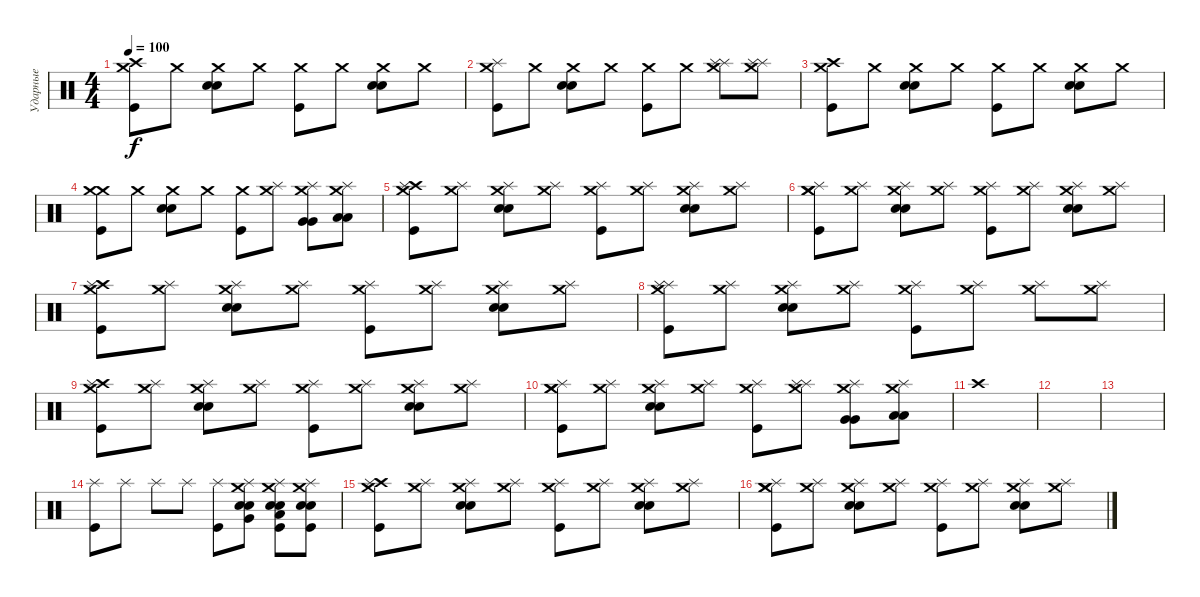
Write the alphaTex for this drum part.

\track ("Ударные" "Ударные") {instrument percussion}
\staff {score}
\articulation defaults
\ts (4 4)
\tempo 100
\clef neutral
\ks c
("Crash medium (hit)" "Crash high (hit)" "Kick (hit)").8{dy f} "Crash medium (hit)".8 ("Crash medium (hit)" "Snare (hit) 2" "Snare (hit) 2").8 "Crash medium (hit)".8 ("Crash medium (hit)" "Kick (hit)").8 "Crash medium (hit)".8 ("Crash medium (hit)" "Snare (hit) 2" "Snare (hit) 2").8 "Crash medium (hit)".8 |
("Crash medium (hit)" "Splash (hit)" "Kick (hit)").8 "Crash medium (hit)".8 ("Crash medium (hit)" "Snare (hit) 2" "Snare (hit) 2").8 "Crash medium (hit)".8 ("Crash medium (hit)" "Kick (hit)").8 "Crash medium (hit)".8 ("Crash medium (hit)" "Splash (hit)" "Splash (hit)").8 ("Crash medium (hit)" "Splash (hit)" "Splash (hit)").8 |
("Crash medium (hit)" "Crash high (hit)" "Kick (hit)").8 "Crash medium (hit)".8 ("Crash medium (hit)" "Snare (hit) 2" "Snare (hit) 2").8 "Crash medium (hit)".8 ("Crash medium (hit)" "Kick (hit)").8 "Crash medium (hit)".8 ("Crash medium (hit)" "Snare (hit) 2" "Snare (hit) 2").8 "Crash medium (hit)".8 |
("Crash medium (hit)" "Crash medium (hit)" "Kick (hit)").8 "Crash medium (hit)".8 ("Crash medium (hit)" "Snare (hit) 2" "Snare (hit) 2").8 "Crash medium (hit)".8 ("Crash medium (hit)" "Kick (hit)").8 ("Crash medium (hit)" "Splash (hit)").8 ("Crash medium (hit)" "Splash (hit)" "Very Low Tom (hit)" "Very Low Tom (hit)").8 ("Crash medium (hit)" "Splash (hit)" "Low Floor Tom (hit)" "Low Floor Tom (hit)").8 |
("Crash medium (hit)" "Crash high (hit)" "Splash (hit)" "Kick (hit)").8 ("Crash medium (hit)" "Splash (hit)").8 ("Crash medium (hit)" "Splash (hit)" "Snare (hit) 2" "Snare (hit) 2").8 ("Crash medium (hit)" "Splash (hit)").8 ("Crash medium (hit)" "Splash (hit)" "Kick (hit)").8 ("Crash medium (hit)" "Splash (hit)").8 ("Crash medium (hit)" "Splash (hit)" "Snare (hit) 2" "Snare (hit) 2").8 ("Crash medium (hit)" "Splash (hit)").8 |
("Crash medium (hit)" "Crash medium (hit)" "Splash (hit)" "Kick (hit)").8 ("Crash medium (hit)" "Splash (hit)").8 ("Crash medium (hit)" "Splash (hit)" "Snare (hit) 2" "Snare (hit) 2").8 ("Crash medium (hit)" "Splash (hit)").8 ("Crash medium (hit)" "Splash (hit)" "Kick (hit)").8 ("Crash medium (hit)" "Splash (hit)").8 ("Crash medium (hit)" "Splash (hit)" "Snare (hit) 2" "Snare (hit) 2").8 ("Crash medium (hit)" "Splash (hit)").8 |
("Crash medium (hit)" "Crash high (hit)" "Splash (hit)" "Kick (hit)").8 ("Crash medium (hit)" "Splash (hit)").8 ("Crash medium (hit)" "Splash (hit)" "Snare (hit) 2" "Snare (hit) 2").8 ("Crash medium (hit)" "Splash (hit)").8 ("Crash medium (hit)" "Splash (hit)" "Kick (hit)").8 ("Crash medium (hit)" "Splash (hit)").8 ("Crash medium (hit)" "Splash (hit)" "Snare (hit) 2" "Snare (hit) 2").8 ("Crash medium (hit)" "Splash (hit)").8 |
("Crash medium (hit)" "Splash (hit)" "Splash (hit)" "Kick (hit)").8 ("Crash medium (hit)" "Splash (hit)").8 ("Crash medium (hit)" "Splash (hit)" "Snare (hit) 2" "Snare (hit) 2").8 ("Crash medium (hit)" "Splash (hit)").8 ("Crash medium (hit)" "Splash (hit)" "Kick (hit)").8 ("Crash medium (hit)" "Splash (hit)").8 ("Crash medium (hit)" "Splash (hit)").8 ("Crash medium (hit)" "Splash (hit)").8 |
("Crash medium (hit)" "Crash high (hit)" "Splash (hit)" "Kick (hit)").8 ("Crash medium (hit)" "Splash (hit)").8 ("Crash medium (hit)" "Splash (hit)" "Snare (hit) 2" "Snare (hit) 2").8 ("Crash medium (hit)" "Splash (hit)").8 ("Crash medium (hit)" "Splash (hit)" "Kick (hit)").8 ("Crash medium (hit)" "Splash (hit)").8 ("Crash medium (hit)" "Splash (hit)" "Snare (hit) 2" "Snare (hit) 2").8 ("Crash medium (hit)" "Splash (hit)").8 |
("Crash medium (hit)" "Crash medium (hit)" "Splash (hit)" "Kick (hit)").8 ("Crash medium (hit)" "Splash (hit)").8 ("Crash medium (hit)" "Splash (hit)" "Snare (hit) 2" "Snare (hit) 2").8 ("Crash medium (hit)" "Splash (hit)").8 ("Crash medium (hit)" "Splash (hit)" "Kick (hit)").8 ("Crash medium (hit)" "Splash (hit)" "Splash (hit)").8 ("Crash medium (hit)" "Splash (hit)" "Very Low Tom (hit)" "Very Low Tom (hit)").8 ("Crash medium (hit)" "Splash (hit)" "Low Floor Tom (hit)" "Low Floor Tom (hit)").8 |
"Crash high (hit)".1 |
|
|
("Splash (hit)" "Kick (hit)").8 "Splash (hit)".8 "Splash (hit)".8 "Splash (hit)".8 ("Splash (hit)" "Kick (hit)").8 ("Splash (hit)" "Crash medium (hit)" "Snare (hit) 2" "Snare (hit) 2" "Very Low Tom (hit)").8 ("Splash (hit)" "Crash medium (hit)" "Snare (hit) 2" "Snare (hit) 2" "Low Floor Tom (hit)" "Kick (hit)").8 ("Splash (hit)" "Crash medium (hit)" "Electric Snare (hit)" "Electric Snare (hit)" "Kick (hit)").8 |
("Crash medium (hit)" "Crash high (hit)" "Splash (hit)" "Kick (hit)").8 ("Crash medium (hit)" "Splash (hit)").8 ("Crash medium (hit)" "Splash (hit)" "Snare (hit) 2" "Snare (hit) 2").8 ("Crash medium (hit)" "Splash (hit)").8 ("Crash medium (hit)" "Splash (hit)" "Kick (hit)").8 ("Crash medium (hit)" "Splash (hit)").8 ("Crash medium (hit)" "Splash (hit)" "Snare (hit) 2" "Snare (hit) 2").8 ("Crash medium (hit)" "Splash (hit)").8 |
("Crash medium (hit)" "Crash medium (hit)" "Splash (hit)" "Kick (hit)").8 ("Crash medium (hit)" "Splash (hit)").8 ("Crash medium (hit)" "Splash (hit)" "Snare (hit) 2" "Snare (hit) 2").8 ("Crash medium (hit)" "Splash (hit)").8 ("Crash medium (hit)" "Splash (hit)" "Kick (hit)").8 ("Crash medium (hit)" "Splash (hit)").8 ("Crash medium (hit)" "Splash (hit)" "Snare (hit) 2" "Snare (hit) 2").8 ("Crash medium (hit)" "Splash (hit)").8
